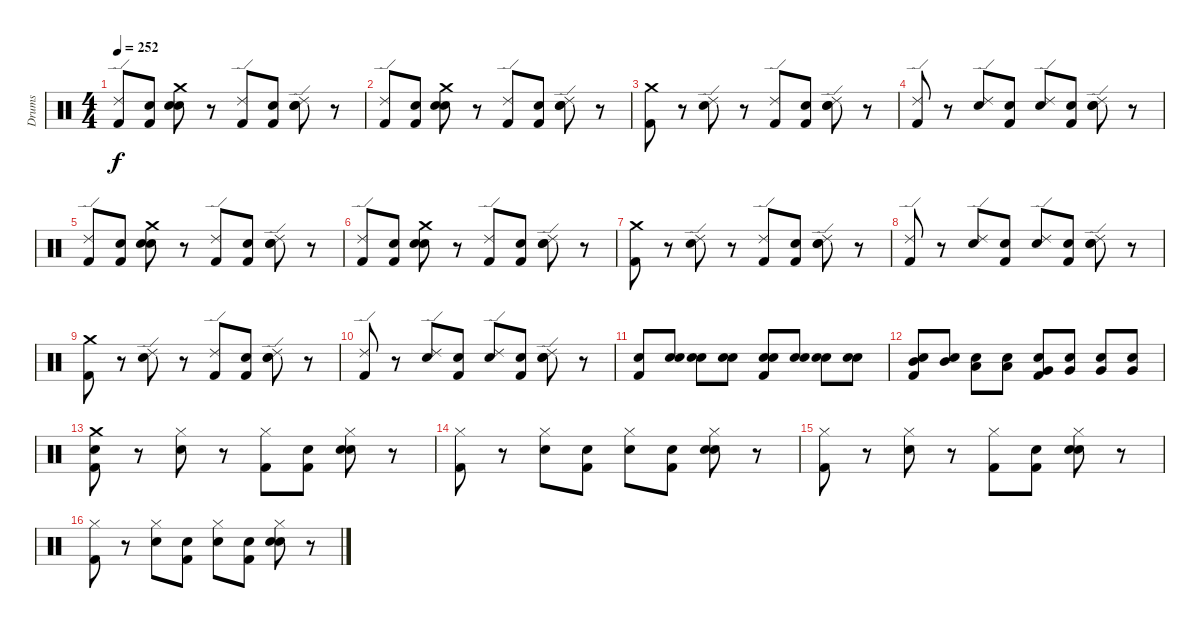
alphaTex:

\track ("Drums" "Drums") {instrument percussion}
\staff {score}
\articulation defaults
\ts (4 4)
\tempo 252
\clef neutral
\ks c
("Ride (edge) 2" "Kick (hit) 2").8{dy f} ("Snare (hit)" "Kick (hit) 2").8 ("Snare (hit)" "Crash medium (hit)" "Electric Snare (hit)").8 r.8 ("Ride (edge) 2" "Kick (hit) 2").8 ("Snare (hit)" "Kick (hit) 2").8 ("Snare (hit)" "Ride (edge) 2" "Electric Snare (hit)").8 r.8 |
("Ride (edge) 2" "Kick (hit) 2").8 ("Snare (hit)" "Kick (hit) 2").8 ("Snare (hit)" "Crash medium (hit)" "Electric Snare (hit)").8 r.8 ("Ride (edge) 2" "Kick (hit) 2").8 ("Snare (hit)" "Kick (hit) 2").8 ("Snare (hit)" "Ride (edge) 2" "Electric Snare (hit)").8 r.8 |
("Crash medium (hit)" "Kick (hit) 2").8 r.8 ("Ride (edge) 2" "Electric Snare (hit)").8 r.8 ("Ride (edge) 2" "Kick (hit) 2").8 ("Snare (hit)" "Kick (hit) 2").8 ("Snare (hit)" "Ride (edge) 2" "Electric Snare (hit)").8 r.8 |
("Ride (edge) 2" "Kick (hit) 2").8 r.8 ("Ride (edge) 2" "Electric Snare (hit)").8 ("Snare (hit)" "Kick (hit) 2").8 ("Snare (hit)" "Ride (edge) 2").8 ("Snare (hit)" "Kick (hit) 2").8 ("Snare (hit)" "Ride (edge) 2" "Electric Snare (hit)").8 r.8 |
("Ride (edge) 2" "Kick (hit) 2").8 ("Snare (hit)" "Kick (hit) 2").8 ("Snare (hit)" "Crash medium (hit)" "Electric Snare (hit)").8 r.8 ("Ride (edge) 2" "Kick (hit) 2").8 ("Snare (hit)" "Kick (hit) 2").8 ("Snare (hit)" "Ride (edge) 2" "Electric Snare (hit)").8 r.8 |
("Ride (edge) 2" "Kick (hit) 2").8 ("Snare (hit)" "Kick (hit) 2").8 ("Snare (hit)" "Crash medium (hit)" "Electric Snare (hit)").8 r.8 ("Ride (edge) 2" "Kick (hit) 2").8 ("Snare (hit)" "Kick (hit) 2").8 ("Snare (hit)" "Ride (edge) 2" "Electric Snare (hit)").8 r.8 |
("Crash medium (hit)" "Kick (hit) 2").8 r.8 ("Ride (edge) 2" "Electric Snare (hit)").8 r.8 ("Ride (edge) 2" "Kick (hit) 2").8 ("Snare (hit)" "Kick (hit) 2").8 ("Snare (hit)" "Ride (edge) 2" "Electric Snare (hit)").8 r.8 |
("Ride (edge) 2" "Kick (hit) 2").8 r.8 ("Ride (edge) 2" "Electric Snare (hit)").8 ("Snare (hit)" "Kick (hit) 2").8 ("Snare (hit)" "Ride (edge) 2").8 ("Snare (hit)" "Kick (hit) 2").8 ("Snare (hit)" "Ride (edge) 2" "Electric Snare (hit)").8 r.8 |
("Crash medium (hit)" "Kick (hit) 2").8 r.8 ("Ride (edge) 2" "Electric Snare (hit)").8 r.8 ("Ride (edge) 2" "Kick (hit) 2").8 ("Snare (hit)" "Kick (hit) 2").8 ("Snare (hit)" "Ride (edge) 2" "Electric Snare (hit)").8 r.8 |
("Ride (edge) 2" "Kick (hit) 2").8 r.8 ("Ride (edge) 2" "Electric Snare (hit)").8 ("Snare (hit)" "Kick (hit) 2").8 ("Snare (hit)" "Ride (edge) 2").8 ("Snare (hit)" "Kick (hit) 2").8 ("Snare (hit)" "Ride (edge) 2" "Electric Snare (hit)").8 r.8 |
("Electric Snare (hit)" "Kick (hit) 2").8 ("Snare (hit)" "Electric Snare (hit)").8 ("Snare (hit)" "Electric Snare (hit)").8 ("Snare (hit)" "Electric Snare (hit)").8 ("Snare (hit)" "Electric Snare (hit)" "Kick (hit) 2").8 ("Snare (hit)" "Electric Snare (hit)").8 ("Snare (hit)" "Electric Snare (hit)").8 ("Snare (hit)" "Electric Snare (hit)").8 |
("Snare (hit)" "Kick (hit) 2" "Mid Tom (hit)").8 ("Snare (hit)" "Mid Tom (hit)").8 ("Snare (hit)" "Low Tom (hit)").8 ("Snare (hit)" "Low Tom (hit)").8 ("Snare (hit)" "Kick (hit) 2" "Very Low Tom (hit)").8 ("Snare (hit)" "Very Low Tom (hit)").8 ("Snare (hit)" "Very Low Tom (hit)").8 ("Snare (hit)" "Very Low Tom (hit)").8 |
("Snare (hit)" "Crash medium (hit)" "Kick (hit) 2").8 r.8 ("Hi-Hat (closed)" "Electric Snare (hit)").8 r.8 ("Hi-Hat (closed)" "Kick (hit) 2").8 ("Snare (hit)" "Kick (hit) 2").8 ("Snare (hit)" "Hi-Hat (closed)" "Electric Snare (hit)").8 r.8 |
("Hi-Hat (closed)" "Kick (hit) 2").8 r.8 ("Hi-Hat (closed)" "Electric Snare (hit)").8 ("Snare (hit)" "Kick (hit) 2").8 ("Snare (hit)" "Hi-Hat (closed)").8 ("Snare (hit)" "Kick (hit) 2").8 ("Snare (hit)" "Hi-Hat (closed)" "Electric Snare (hit)").8 r.8 |
("Hi-Hat (closed)" "Kick (hit) 2").8 r.8 ("Hi-Hat (closed)" "Electric Snare (hit)").8 r.8 ("Hi-Hat (closed)" "Kick (hit) 2").8 ("Snare (hit)" "Kick (hit) 2").8 ("Snare (hit)" "Hi-Hat (closed)" "Electric Snare (hit)").8 r.8 |
("Hi-Hat (closed)" "Kick (hit) 2").8 r.8 ("Hi-Hat (closed)" "Electric Snare (hit)").8 ("Snare (hit)" "Kick (hit) 2").8 ("Snare (hit)" "Hi-Hat (closed)").8 ("Snare (hit)" "Kick (hit) 2").8 ("Snare (hit)" "Hi-Hat (closed)" "Electric Snare (hit)").8 r.8
